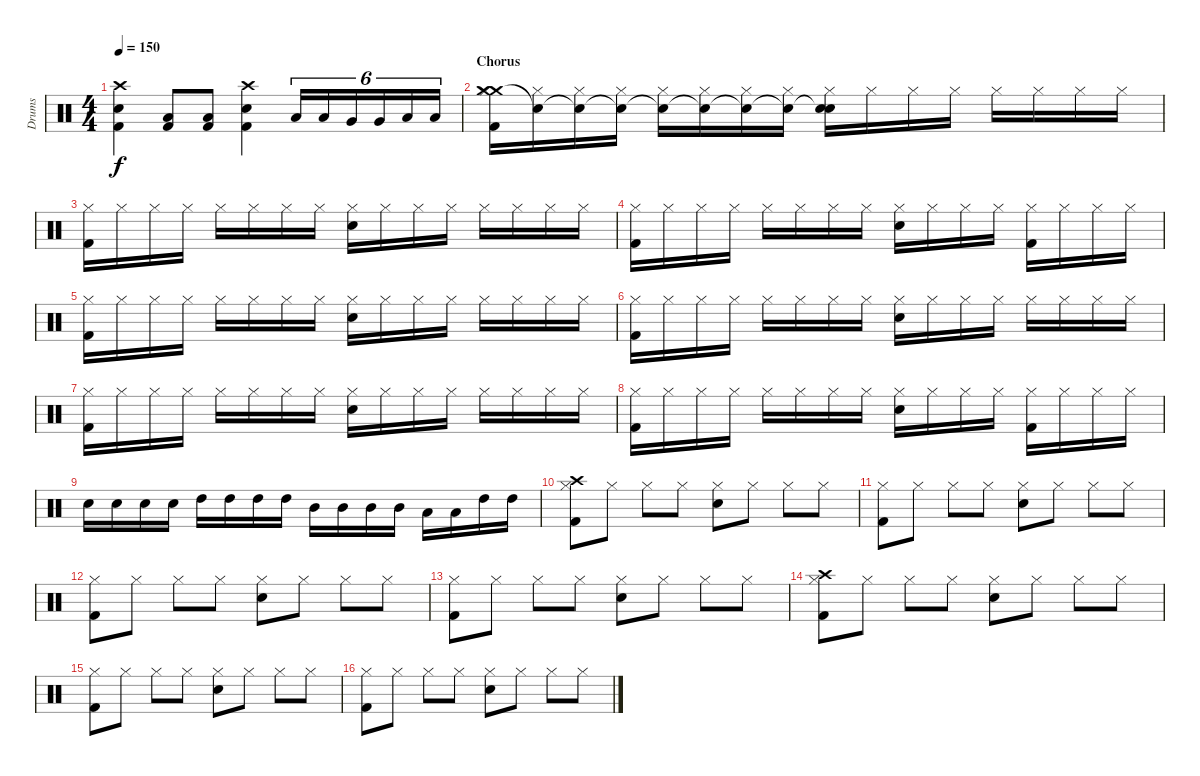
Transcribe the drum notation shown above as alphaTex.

\track ("Drums" "Drums") {instrument percussion}
\staff {score}
\articulation defaults
\ts (4 4)
\tempo 150
\clef neutral
\ks c
("Crash high (hit)" "Electric Snare (hit)" "Kick (hit) 2").4{dy f} ("Low Tom (hit)" "Kick (hit) 2").8 ("Low Tom (hit)" "Kick (hit) 2").8 ("Crash high (hit)" "Electric Snare (hit)" "Kick (hit) 2").4 "Low Tom (hit)".16{tu (6 4)} "Low Tom (hit)".16{tu (6 4)} "Very Low Tom (hit)".16{tu (6 4)} "Very Low Tom (hit)".16{tu (6 4)} "Low Floor Tom (hit)".16{tu (6 4)} "Low Floor Tom (hit)".16{tu (6 4)} |
\section ("" "Chorus")
("Crash medium (hit)" "Crash medium (hit)" "Kick (hit) 2" "Hi-Hat (closed)").16 ("Snare (hit)"{t} "Hi-Hat (closed)").16 ("Snare (hit)"{t} "Hi-Hat (closed)").16 ("Snare (hit)"{t} "Hi-Hat (closed)").16 ("Snare (hit)"{t} "Hi-Hat (closed)").16 ("Snare (hit)"{t} "Hi-Hat (closed)").16 ("Snare (hit)"{t} "Hi-Hat (closed)").16 ("Snare (hit)"{t} "Hi-Hat (closed)").16 ("Snare (hit)"{t} "Electric Snare (hit)" "Hi-Hat (closed)").16 "Hi-Hat (closed)".16 "Hi-Hat (closed)".16 "Hi-Hat (closed)".16 "Hi-Hat (closed)".16 "Hi-Hat (closed)".16 "Hi-Hat (closed)".16 "Hi-Hat (closed)".16 |
("Kick (hit) 2" "Hi-Hat (closed)").16 "Hi-Hat (closed)".16 "Hi-Hat (closed)".16 "Hi-Hat (closed)".16 "Hi-Hat (closed)".16 "Hi-Hat (closed)".16 "Hi-Hat (closed)".16 "Hi-Hat (closed)".16 ("Electric Snare (hit)" "Hi-Hat (closed)").16 "Hi-Hat (closed)".16 "Hi-Hat (closed)".16 "Hi-Hat (closed)".16 "Hi-Hat (closed)".16 "Hi-Hat (closed)".16 "Hi-Hat (closed)".16 "Hi-Hat (closed)".16 |
("Kick (hit) 2" "Hi-Hat (closed)").16 "Hi-Hat (closed)".16 "Hi-Hat (closed)".16 "Hi-Hat (closed)".16 "Hi-Hat (closed)".16 "Hi-Hat (closed)".16 "Hi-Hat (closed)".16 "Hi-Hat (closed)".16 ("Electric Snare (hit)" "Hi-Hat (closed)").16 "Hi-Hat (closed)".16 "Hi-Hat (closed)".16 "Hi-Hat (closed)".16 ("Kick (hit) 2" "Hi-Hat (closed)").16 "Hi-Hat (closed)".16 "Hi-Hat (closed)".16 "Hi-Hat (closed)".16 |
("Kick (hit) 2" "Hi-Hat (closed)").16 "Hi-Hat (closed)".16 "Hi-Hat (closed)".16 "Hi-Hat (closed)".16 "Hi-Hat (closed)".16 "Hi-Hat (closed)".16 "Hi-Hat (closed)".16 "Hi-Hat (closed)".16 ("Electric Snare (hit)" "Hi-Hat (closed)").16 "Hi-Hat (closed)".16 "Hi-Hat (closed)".16 "Hi-Hat (closed)".16 "Hi-Hat (closed)".16 "Hi-Hat (closed)".16 "Hi-Hat (closed)".16 "Hi-Hat (closed)".16 |
("Kick (hit) 2" "Hi-Hat (closed)").16 "Hi-Hat (closed)".16 "Hi-Hat (closed)".16 "Hi-Hat (closed)".16 "Hi-Hat (closed)".16 "Hi-Hat (closed)".16 "Hi-Hat (closed)".16 "Hi-Hat (closed)".16 ("Electric Snare (hit)" "Hi-Hat (closed)").16 "Hi-Hat (closed)".16 "Hi-Hat (closed)".16 "Hi-Hat (closed)".16 "Hi-Hat (closed)".16 "Hi-Hat (closed)".16 "Hi-Hat (closed)".16 "Hi-Hat (closed)".16 |
("Kick (hit) 2" "Hi-Hat (closed)").16 "Hi-Hat (closed)".16 "Hi-Hat (closed)".16 "Hi-Hat (closed)".16 "Hi-Hat (closed)".16 "Hi-Hat (closed)".16 "Hi-Hat (closed)".16 "Hi-Hat (closed)".16 ("Electric Snare (hit)" "Hi-Hat (closed)").16 "Hi-Hat (closed)".16 "Hi-Hat (closed)".16 "Hi-Hat (closed)".16 "Hi-Hat (closed)".16 "Hi-Hat (closed)".16 "Hi-Hat (closed)".16 "Hi-Hat (closed)".16 |
("Kick (hit) 2" "Hi-Hat (closed)").16 "Hi-Hat (closed)".16 "Hi-Hat (closed)".16 "Hi-Hat (closed)".16 "Hi-Hat (closed)".16 "Hi-Hat (closed)".16 "Hi-Hat (closed)".16 "Hi-Hat (closed)".16 ("Electric Snare (hit)" "Hi-Hat (closed)").16 "Hi-Hat (closed)".16 "Hi-Hat (closed)".16 "Hi-Hat (closed)".16 ("Kick (hit) 2" "Hi-Hat (closed)").16 "Hi-Hat (closed)".16 "Hi-Hat (closed)".16 "Hi-Hat (closed)".16 |
"Electric Snare (hit)".16 "Electric Snare (hit)".16 "Electric Snare (hit)".16 "Electric Snare (hit)".16 "High Tom (hit)".16 "High Tom (hit)".16 "High Tom (hit)".16 "High Tom (hit)".16 "Mid Tom (hit)".16 "Mid Tom (hit)".16 "Mid Tom (hit)".16 "Mid Tom (hit)".16 "Low Tom (hit)".16 "Low Tom (hit)".16 "High Tom (hit)".16 "High Tom (hit)".16 |
("Crash high (hit)" "Kick (hit) 2" "Hi-Hat (closed)").8 "Hi-Hat (closed)".8 "Hi-Hat (closed)".8 "Hi-Hat (closed)".8 ("Electric Snare (hit)" "Hi-Hat (closed)").8 "Hi-Hat (closed)".8 "Hi-Hat (closed)".8 "Hi-Hat (closed)".8 |
("Kick (hit) 2" "Hi-Hat (closed)").8 "Hi-Hat (closed)".8 "Hi-Hat (closed)".8 "Hi-Hat (closed)".8 ("Electric Snare (hit)" "Hi-Hat (closed)").8 "Hi-Hat (closed)".8 "Hi-Hat (closed)".8 "Hi-Hat (closed)".8 |
("Kick (hit) 2" "Hi-Hat (closed)").8 "Hi-Hat (closed)".8 "Hi-Hat (closed)".8 "Hi-Hat (closed)".8 ("Electric Snare (hit)" "Hi-Hat (closed)").8 "Hi-Hat (closed)".8 "Hi-Hat (closed)".8 "Hi-Hat (closed)".8 |
("Kick (hit) 2" "Hi-Hat (closed)").8 "Hi-Hat (closed)".8 "Hi-Hat (closed)".8 "Hi-Hat (closed)".8 ("Electric Snare (hit)" "Hi-Hat (closed)").8 "Hi-Hat (closed)".8 "Hi-Hat (closed)".8 "Hi-Hat (closed)".8 |
("Crash high (hit)" "Kick (hit) 2" "Hi-Hat (closed)").8 "Hi-Hat (closed)".8 "Hi-Hat (closed)".8 "Hi-Hat (closed)".8 ("Electric Snare (hit)" "Hi-Hat (closed)").8 "Hi-Hat (closed)".8 "Hi-Hat (closed)".8 "Hi-Hat (closed)".8 |
("Kick (hit) 2" "Hi-Hat (closed)").8 "Hi-Hat (closed)".8 "Hi-Hat (closed)".8 "Hi-Hat (closed)".8 ("Electric Snare (hit)" "Hi-Hat (closed)").8 "Hi-Hat (closed)".8 "Hi-Hat (closed)".8 "Hi-Hat (closed)".8 |
("Kick (hit) 2" "Hi-Hat (closed)").8 "Hi-Hat (closed)".8 "Hi-Hat (closed)".8 "Hi-Hat (closed)".8 ("Electric Snare (hit)" "Hi-Hat (closed)").8 "Hi-Hat (closed)".8 "Hi-Hat (closed)".8 "Hi-Hat (closed)".8
